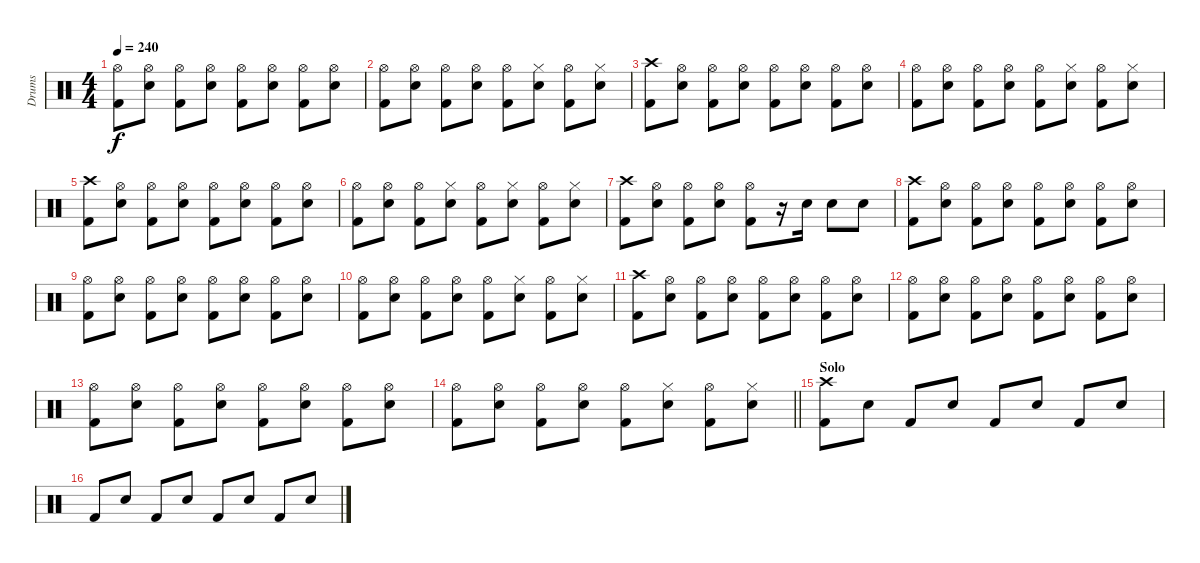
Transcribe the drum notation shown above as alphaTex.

\track ("Drums" "Drums") {instrument percussion}
\staff {score}
\articulation defaults
\ts (4 4)
\tempo 240
\clef neutral
\ks c
("Hi-Hat (open)" "Kick (hit) 2").8{dy f} ("Hi-Hat (open)" "Snare (hit) 2").8 ("Hi-Hat (open)" "Kick (hit) 2").8 ("Hi-Hat (open)" "Snare (hit) 2").8 ("Hi-Hat (open)" "Kick (hit) 2").8 ("Hi-Hat (open)" "Snare (hit) 2").8 ("Hi-Hat (open)" "Kick (hit) 2").8 ("Hi-Hat (open)" "Snare (hit) 2").8 |
("Hi-Hat (open)" "Kick (hit) 2").8 ("Hi-Hat (open)" "Snare (hit) 2").8 ("Hi-Hat (open)" "Kick (hit) 2").8 ("Hi-Hat (open)" "Snare (hit) 2").8 ("Hi-Hat (open)" "Kick (hit) 2").8 ("Hi-Hat (closed)" "Snare (hit) 2").8 ("Hi-Hat (open)" "Kick (hit) 2").8 ("Hi-Hat (closed)" "Snare (hit) 2").8 |
("Crash high (hit)" "Kick (hit) 2").8 ("Hi-Hat (open)" "Snare (hit) 2").8 ("Hi-Hat (open)" "Kick (hit) 2").8 ("Hi-Hat (open)" "Snare (hit) 2").8 ("Hi-Hat (open)" "Kick (hit) 2").8 ("Hi-Hat (open)" "Snare (hit) 2").8 ("Hi-Hat (open)" "Kick (hit) 2").8 ("Hi-Hat (open)" "Snare (hit) 2").8 |
("Hi-Hat (open)" "Kick (hit) 2").8 ("Hi-Hat (open)" "Snare (hit) 2").8 ("Hi-Hat (open)" "Kick (hit) 2").8 ("Hi-Hat (open)" "Snare (hit) 2").8 ("Hi-Hat (open)" "Kick (hit) 2").8 ("Hi-Hat (closed)" "Snare (hit) 2").8 ("Hi-Hat (open)" "Kick (hit) 2").8 ("Hi-Hat (closed)" "Snare (hit) 2").8 |
("Crash high (hit)" "Kick (hit) 2").8 ("Hi-Hat (open)" "Snare (hit) 2").8 ("Hi-Hat (open)" "Kick (hit) 2").8 ("Hi-Hat (open)" "Snare (hit) 2").8 ("Hi-Hat (open)" "Kick (hit) 2").8 ("Hi-Hat (open)" "Snare (hit) 2").8 ("Hi-Hat (open)" "Kick (hit) 2").8 ("Hi-Hat (open)" "Snare (hit) 2").8 |
("Hi-Hat (open)" "Kick (hit) 2").8 ("Hi-Hat (open)" "Snare (hit) 2").8 ("Hi-Hat (open)" "Kick (hit) 2").8 ("Hi-Hat (closed)" "Snare (hit) 2").8 ("Hi-Hat (open)" "Kick (hit) 2").8 ("Hi-Hat (closed)" "Snare (hit) 2").8 ("Hi-Hat (open)" "Kick (hit) 2").8 ("Hi-Hat (closed)" "Snare (hit) 2").8 |
("Crash high (hit)" "Kick (hit) 2").8 ("Hi-Hat (open)" "Snare (hit) 2").8 ("Hi-Hat (open)" "Kick (hit) 2").8 ("Hi-Hat (open)" "Snare (hit) 2").8 ("Hi-Hat (open)" "Kick (hit) 2").8 r.16 "Snare (hit) 2".16 "Snare (hit) 2".8 "Snare (hit) 2".8 |
("Crash high (hit)" "Kick (hit) 2").8 ("Hi-Hat (open)" "Snare (hit) 2").8 ("Hi-Hat (open)" "Kick (hit) 2").8 ("Hi-Hat (open)" "Snare (hit) 2").8 ("Hi-Hat (open)" "Kick (hit) 2").8 ("Hi-Hat (open)" "Snare (hit) 2").8 ("Hi-Hat (open)" "Kick (hit) 2").8 ("Hi-Hat (open)" "Snare (hit) 2").8 |
("Hi-Hat (open)" "Kick (hit) 2").8 ("Hi-Hat (open)" "Snare (hit) 2").8 ("Hi-Hat (open)" "Kick (hit) 2").8 ("Hi-Hat (open)" "Snare (hit) 2").8 ("Hi-Hat (open)" "Kick (hit) 2").8 ("Hi-Hat (open)" "Snare (hit) 2").8 ("Hi-Hat (open)" "Kick (hit) 2").8 ("Hi-Hat (open)" "Snare (hit) 2").8 |
("Hi-Hat (open)" "Kick (hit) 2").8 ("Hi-Hat (open)" "Snare (hit) 2").8 ("Hi-Hat (open)" "Kick (hit) 2").8 ("Hi-Hat (open)" "Snare (hit) 2").8 ("Hi-Hat (open)" "Kick (hit) 2").8 ("Hi-Hat (closed)" "Snare (hit) 2").8 ("Hi-Hat (open)" "Kick (hit) 2").8 ("Hi-Hat (closed)" "Snare (hit) 2").8 |
("Crash high (hit)" "Kick (hit) 2").8 ("Hi-Hat (open)" "Snare (hit) 2").8 ("Hi-Hat (open)" "Kick (hit) 2").8 ("Hi-Hat (open)" "Snare (hit) 2").8 ("Hi-Hat (open)" "Kick (hit) 2").8 ("Hi-Hat (open)" "Snare (hit) 2").8 ("Hi-Hat (open)" "Kick (hit) 2").8 ("Hi-Hat (open)" "Snare (hit) 2").8 |
("Hi-Hat (open)" "Kick (hit) 2").8 ("Hi-Hat (open)" "Snare (hit) 2").8 ("Hi-Hat (open)" "Kick (hit) 2").8 ("Hi-Hat (open)" "Snare (hit) 2").8 ("Hi-Hat (open)" "Kick (hit) 2").8 ("Hi-Hat (open)" "Snare (hit) 2").8 ("Hi-Hat (open)" "Kick (hit) 2").8 ("Hi-Hat (open)" "Snare (hit) 2").8 |
("Hi-Hat (open)" "Kick (hit) 2").8 ("Hi-Hat (open)" "Snare (hit) 2").8 ("Hi-Hat (open)" "Kick (hit) 2").8 ("Hi-Hat (open)" "Snare (hit) 2").8 ("Hi-Hat (open)" "Kick (hit) 2").8 ("Hi-Hat (open)" "Snare (hit) 2").8 ("Hi-Hat (open)" "Kick (hit) 2").8 ("Hi-Hat (open)" "Snare (hit) 2").8 |
\barLineRight lightlight
("Hi-Hat (open)" "Kick (hit) 2").8 ("Hi-Hat (open)" "Snare (hit) 2").8 ("Hi-Hat (open)" "Kick (hit) 2").8 ("Hi-Hat (open)" "Snare (hit) 2").8 ("Hi-Hat (open)" "Kick (hit) 2").8 ("Hi-Hat (closed)" "Snare (hit) 2").8 ("Hi-Hat (open)" "Kick (hit) 2").8 ("Hi-Hat (closed)" "Snare (hit) 2").8 |
\section ("" "Solo")
("Crash high (hit)" "Kick (hit) 2").8 "Snare (hit) 2".8 "Kick (hit) 2".8 "Snare (hit) 2".8 "Kick (hit) 2".8 "Snare (hit) 2".8 "Kick (hit) 2".8 "Snare (hit) 2".8 |
"Kick (hit) 2".8 "Snare (hit) 2".8 "Kick (hit) 2".8 "Snare (hit) 2".8 "Kick (hit) 2".8 "Snare (hit) 2".8 "Kick (hit) 2".8 "Snare (hit) 2".8
